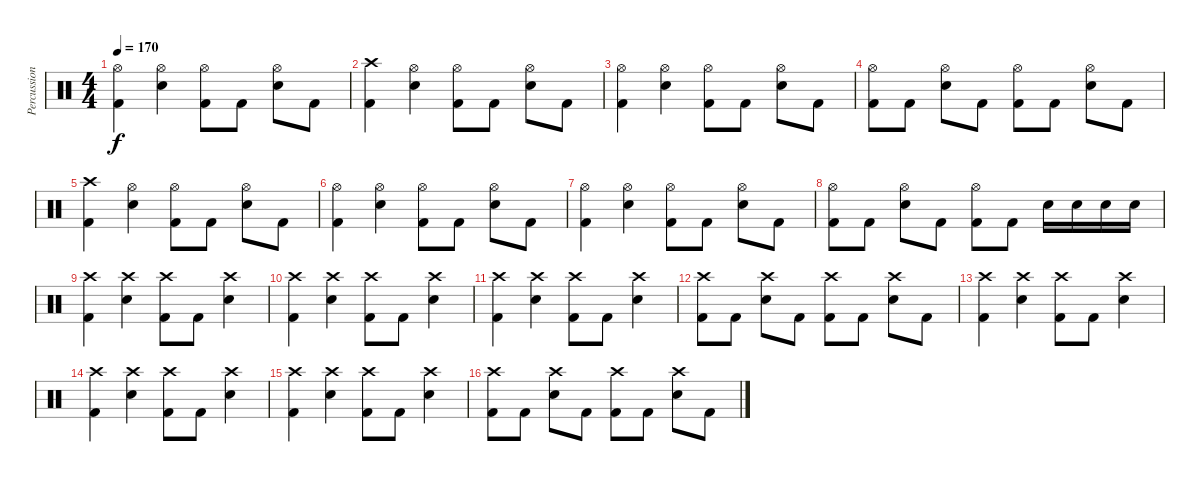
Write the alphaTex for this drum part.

\track ("Percussion" "Percussion") {instrument percussion}
\staff {score}
\articulation defaults
\ts (4 4)
\tempo 170
\clef neutral
\ks c
("Hi-Hat (open)" "Kick (hit) 2").4{dy f} ("Hi-Hat (open)" "Electric Snare (hit)").4 ("Hi-Hat (open)" "Kick (hit) 2").8 "Kick (hit) 2".8 ("Hi-Hat (open)" "Electric Snare (hit)").8 "Kick (hit) 2".8 |
("Crash high (hit)" "Kick (hit) 2").4 ("Hi-Hat (open)" "Electric Snare (hit)").4 ("Hi-Hat (open)" "Kick (hit) 2").8 "Kick (hit) 2".8 ("Hi-Hat (open)" "Electric Snare (hit)").8 "Kick (hit) 2".8 |
("Hi-Hat (open)" "Kick (hit) 2").4 ("Hi-Hat (open)" "Electric Snare (hit)").4 ("Hi-Hat (open)" "Kick (hit) 2").8 "Kick (hit) 2".8 ("Hi-Hat (open)" "Electric Snare (hit)").8 "Kick (hit) 2".8 |
("Hi-Hat (open)" "Kick (hit) 2").8 "Kick (hit) 2".8 ("Hi-Hat (open)" "Electric Snare (hit)").8 "Kick (hit) 2".8 ("Hi-Hat (open)" "Kick (hit) 2").8 "Kick (hit) 2".8 ("Hi-Hat (open)" "Electric Snare (hit)").8 "Kick (hit) 2".8 |
("Crash high (hit)" "Kick (hit) 2").4 ("Hi-Hat (open)" "Electric Snare (hit)").4 ("Hi-Hat (open)" "Kick (hit) 2").8 "Kick (hit) 2".8 ("Hi-Hat (open)" "Electric Snare (hit)").8 "Kick (hit) 2".8 |
("Hi-Hat (open)" "Kick (hit) 2").4 ("Hi-Hat (open)" "Electric Snare (hit)").4 ("Hi-Hat (open)" "Kick (hit) 2").8 "Kick (hit) 2".8 ("Hi-Hat (open)" "Electric Snare (hit)").8 "Kick (hit) 2".8 |
("Hi-Hat (open)" "Kick (hit) 2").4 ("Hi-Hat (open)" "Electric Snare (hit)").4 ("Hi-Hat (open)" "Kick (hit) 2").8 "Kick (hit) 2".8 ("Hi-Hat (open)" "Electric Snare (hit)").8 "Kick (hit) 2".8 |
("Hi-Hat (open)" "Kick (hit) 2").8 "Kick (hit) 2".8 ("Hi-Hat (open)" "Electric Snare (hit)").8 "Kick (hit) 2".8 ("Hi-Hat (open)" "Kick (hit) 2").8 "Kick (hit) 2".8 "Snare (hit) 2".16 "Snare (hit) 2".16 "Snare (hit) 2".16 "Snare (hit) 2".16 |
("Crash high (hit)" "Kick (hit) 2").4 ("Crash high (hit)" "Electric Snare (hit)").4 ("Crash high (hit)" "Kick (hit) 2").8 "Kick (hit) 2".8 ("Crash high (hit)" "Electric Snare (hit)").4 |
("Crash high (hit)" "Kick (hit) 2").4 ("Crash high (hit)" "Electric Snare (hit)").4 ("Crash high (hit)" "Kick (hit) 2").8 "Kick (hit) 2".8 ("Crash high (hit)" "Electric Snare (hit)").4 |
("Crash high (hit)" "Kick (hit) 2").4 ("Crash high (hit)" "Electric Snare (hit)").4 ("Crash high (hit)" "Kick (hit) 2").8 "Kick (hit) 2".8 ("Crash high (hit)" "Electric Snare (hit)").4 |
("Crash high (hit)" "Kick (hit) 2").8 "Kick (hit) 2".8 ("Crash high (hit)" "Electric Snare (hit)").8 "Kick (hit) 2".8 ("Crash high (hit)" "Kick (hit) 2").8 "Kick (hit) 2".8 ("Crash high (hit)" "Electric Snare (hit)").8 "Kick (hit) 2".8 |
("Crash high (hit)" "Kick (hit) 2").4 ("Crash high (hit)" "Electric Snare (hit)").4 ("Crash high (hit)" "Kick (hit) 2").8 "Kick (hit) 2".8 ("Crash high (hit)" "Electric Snare (hit)").4 |
("Crash high (hit)" "Kick (hit) 2").4 ("Crash high (hit)" "Electric Snare (hit)").4 ("Crash high (hit)" "Kick (hit) 2").8 "Kick (hit) 2".8 ("Crash high (hit)" "Electric Snare (hit)").4 |
("Crash high (hit)" "Kick (hit) 2").4 ("Crash high (hit)" "Electric Snare (hit)").4 ("Crash high (hit)" "Kick (hit) 2").8 "Kick (hit) 2".8 ("Crash high (hit)" "Electric Snare (hit)").4 |
("Crash high (hit)" "Kick (hit) 2").8 "Kick (hit) 2".8 ("Crash high (hit)" "Electric Snare (hit)").8 "Kick (hit) 2".8 ("Crash high (hit)" "Kick (hit) 2").8 "Kick (hit) 2".8 ("Crash high (hit)" "Electric Snare (hit)").8 "Kick (hit) 2".8
